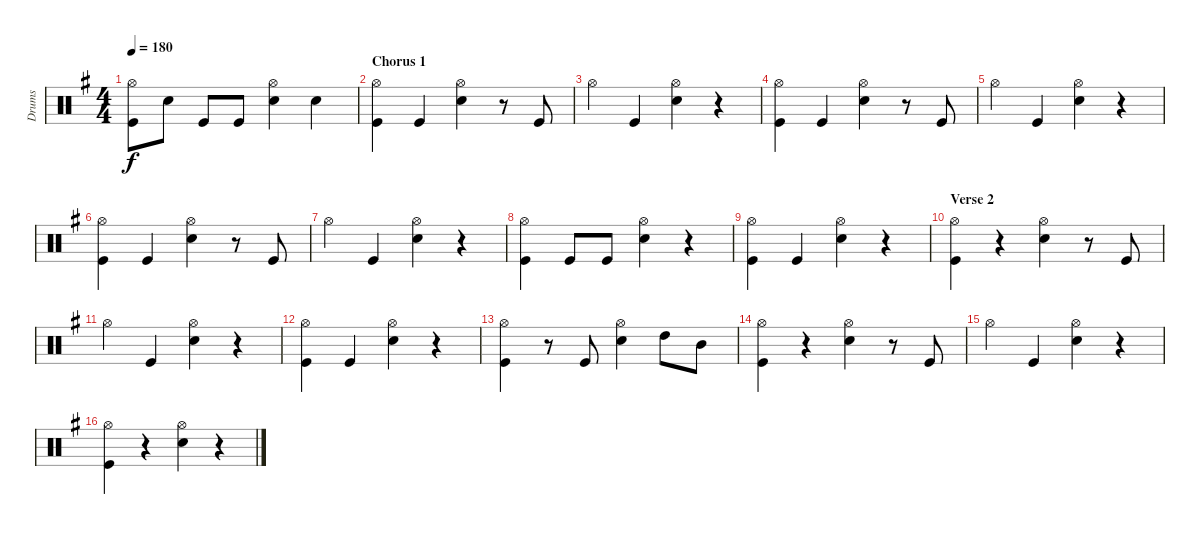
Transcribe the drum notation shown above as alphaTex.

\track ("Drums" "Drums") {instrument percussion}
\staff {score}
\articulation defaults
\ts (4 4)
\tempo 180
\clef neutral
\ks eminor
("Hi-Hat (open)" "Kick (hit)").8{dy f} "Snare (hit) 2".8 "Kick (hit)".8 "Kick (hit)".8 ("Hi-Hat (open)" "Snare (hit) 2").4 "Snare (hit) 2".4 |
\section ("" "Chorus 1")
("Hi-Hat (open)" "Kick (hit)").4 "Kick (hit)".4 ("Hi-Hat (open)" "Snare (hit) 2").4 r.8 "Kick (hit)".8 |
"Hi-Hat (open)".4 "Kick (hit)".4 ("Hi-Hat (open)" "Snare (hit) 2").4 r.4 |
("Hi-Hat (open)" "Kick (hit)").4 "Kick (hit)".4 ("Hi-Hat (open)" "Snare (hit) 2").4 r.8 "Kick (hit)".8 |
"Hi-Hat (open)".4 "Kick (hit)".4 ("Hi-Hat (open)" "Snare (hit) 2").4 r.4 |
("Hi-Hat (open)" "Kick (hit)").4 "Kick (hit)".4 ("Hi-Hat (open)" "Snare (hit) 2").4 r.8 "Kick (hit)".8 |
"Hi-Hat (open)".4 "Kick (hit)".4 ("Hi-Hat (open)" "Snare (hit) 2").4 r.4 |
("Hi-Hat (open)" "Kick (hit)").4 "Kick (hit)".8 "Kick (hit)".8 ("Hi-Hat (open)" "Snare (hit) 2").4 r.4 |
("Hi-Hat (open)" "Kick (hit)").4 "Kick (hit)".4 ("Hi-Hat (open)" "Snare (hit) 2").4 r.4 |
\section ("" "Verse 2")
("Hi-Hat (open)" "Kick (hit)").4 r.4 ("Hi-Hat (open)" "Snare (hit) 2").4 r.8 "Kick (hit)".8 |
"Hi-Hat (open)".4 "Kick (hit)".4 ("Hi-Hat (open)" "Snare (hit) 2").4 r.4 |
("Hi-Hat (open)" "Kick (hit)").4 "Kick (hit)".4 ("Hi-Hat (open)" "Snare (hit) 2").4 r.4 |
("Hi-Hat (open)" "Kick (hit)").4 r.8 "Kick (hit)".8 ("Hi-Hat (open)" "Snare (hit) 2").4 "High Tom (hit)".8 "Mid Tom (hit)".8 |
("Hi-Hat (open)" "Kick (hit)").4 r.4 ("Hi-Hat (open)" "Snare (hit) 2").4 r.8 "Kick (hit)".8 |
"Hi-Hat (open)".4 "Kick (hit)".4 ("Hi-Hat (open)" "Snare (hit) 2").4 r.4 |
("Hi-Hat (open)" "Kick (hit)").4 r.4 ("Hi-Hat (open)" "Snare (hit) 2").4 r.4
